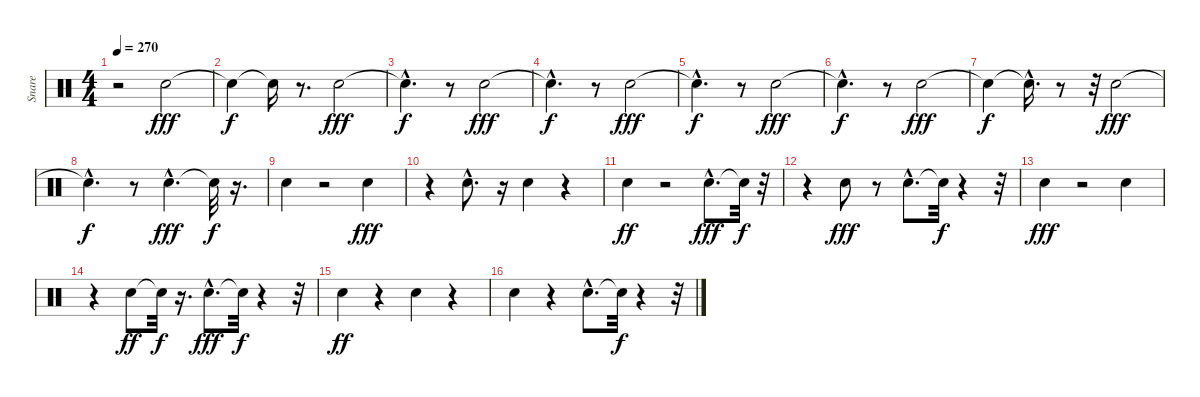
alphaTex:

\track ("Snare" "Snare") {instrument percussion}
\staff {score}
\articulation defaults
\ts (4 4)
\tempo 270
\clef neutral
\ks c
r.2{dy f} "Electric Snare (hit)".2{dy fff} |
"Snare (hit)"{t}.4{dy f} "Snare (hit)"{t}.16 r.8{d} "Electric Snare (hit)".2{dy fff} |
"Snare (hit)"{hac t}.4{d dy f} r.8 "Electric Snare (hit)".2{dy fff} |
"Snare (hit)"{hac t}.4{d dy f} r.8 "Electric Snare (hit)".2{dy fff} |
"Snare (hit)"{hac t}.4{d dy f} r.8 "Electric Snare (hit)".2{dy fff} |
"Snare (hit)"{hac t}.4{d dy f} r.8 "Electric Snare (hit)".2{dy fff} |
"Snare (hit)"{t}.4{dy f} "Snare (hit)"{hac t}.16{d} r.8 r.32 "Electric Snare (hit)".2{dy fff} |
"Snare (hit)"{hac t}.4{d dy f} r.8 "Electric Snare (hit)"{hac}.4{d dy fff} "Snare (hit)"{t}.32{dy f} r.16{d} |
"Electric Snare (hit)".4 r.2 "Electric Snare (hit)".4{dy fff} |
r.4 "Electric Snare (hit)"{hac}.8{d} r.16 "Electric Snare (hit)".4 r.4 |
"Electric Snare (hit)".4{dy ff} r.2 "Electric Snare (hit)"{hac}.8{d dy fff} "Snare (hit)"{t}.32{dy f} r.32 |
r.4 "Electric Snare (hit)".8{dy fff} r.8 "Electric Snare (hit)"{hac}.8{d} "Snare (hit)"{t}.32{dy f} r.4 r.32 |
"Electric Snare (hit)".4{dy fff} r.2 "Electric Snare (hit)".4 |
r.4 "Electric Snare (hit)".8{dy ff} "Snare (hit)"{t}.32{dy f} r.16{d} "Electric Snare (hit)"{hac}.8{d dy fff} "Snare (hit)"{t}.32{dy f} r.4 r.32 |
"Electric Snare (hit)".4{dy ff} r.4 "Electric Snare (hit)".4 r.4 |
"Electric Snare (hit)".4 r.4 "Electric Snare (hit)"{hac}.8{d} "Snare (hit)"{t}.32{dy f} r.4 r.32
